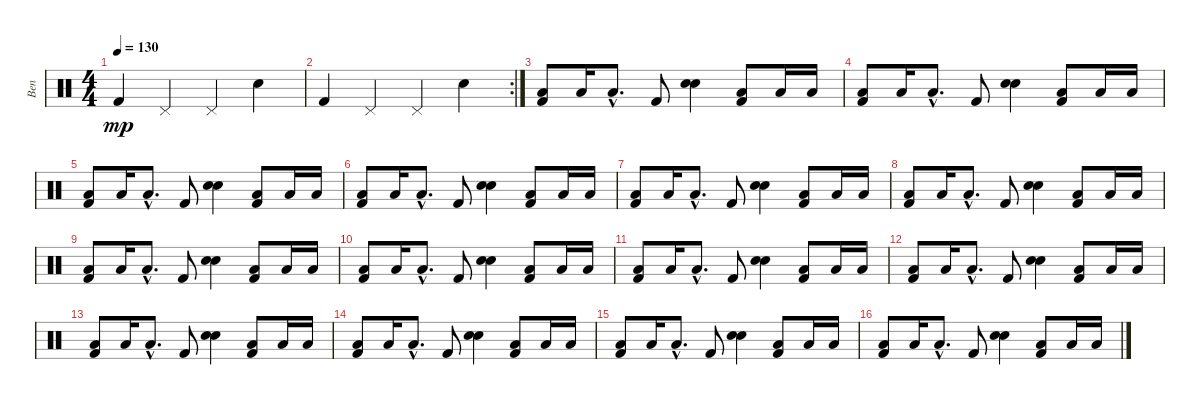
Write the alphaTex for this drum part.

\track ("Ben" "Ben") {instrument percussion}
\staff {score}
\articulation defaults
\ts (4 4)
\tempo 130
\clef neutral
\ks c "Kick (hit) 2".4{dy mp} "Pedal Hi-Hat (hit)".4 "Pedal Hi-Hat (hit)".4 "Electric Snare (hit)".4
|
\rc 2 "Kick (hit) 2".4 "Pedal Hi-Hat (hit)".4 "Pedal Hi-Hat (hit)".4 "Electric Snare (hit)".4
|
("Low Tom (hit)" "Kick (hit) 2").8 "Low Tom (hit)".16 "Low Tom (hit)"{hac}.8{d} "Kick (hit) 2".8 ("Snare (hit) 2" "Electric Snare (hit)").4 ("Low Tom (hit)" "Kick (hit) 2").8 "Low Tom (hit)".16 "Low Tom (hit)".16 |
("Low Tom (hit)" "Kick (hit) 2").8 "Low Tom (hit)".16 "Low Tom (hit)"{hac}.8{d} "Kick (hit) 2".8 ("Snare (hit) 2" "Electric Snare (hit)").4 ("Low Tom (hit)" "Kick (hit) 2").8 "Low Tom (hit)".16 "Low Tom (hit)".16 |
("Low Tom (hit)" "Kick (hit) 2").8 "Low Tom (hit)".16 "Low Tom (hit)"{hac}.8{d} "Kick (hit) 2".8 ("Snare (hit) 2" "Electric Snare (hit)").4 ("Low Tom (hit)" "Kick (hit) 2").8 "Low Tom (hit)".16 "Low Tom (hit)".16 |
("Low Tom (hit)" "Kick (hit) 2").8 "Low Tom (hit)".16 "Low Tom (hit)"{hac}.8{d} "Kick (hit) 2".8 ("Snare (hit) 2" "Electric Snare (hit)").4 ("Low Tom (hit)" "Kick (hit) 2").8 "Low Tom (hit)".16 "Low Tom (hit)".16 |
("Low Tom (hit)" "Kick (hit) 2").8 "Low Tom (hit)".16 "Low Tom (hit)"{hac}.8{d} "Kick (hit) 2".8 ("Snare (hit) 2" "Electric Snare (hit)").4 ("Low Tom (hit)" "Kick (hit) 2").8 "Low Tom (hit)".16 "Low Tom (hit)".16 |
("Low Tom (hit)" "Kick (hit) 2").8 "Low Tom (hit)".16 "Low Tom (hit)"{hac}.8{d} "Kick (hit) 2".8 ("Snare (hit) 2" "Electric Snare (hit)").4 ("Low Tom (hit)" "Kick (hit) 2").8 "Low Tom (hit)".16 "Low Tom (hit)".16 |
("Low Tom (hit)" "Kick (hit) 2").8 "Low Tom (hit)".16 "Low Tom (hit)"{hac}.8{d} "Kick (hit) 2".8 ("Snare (hit) 2" "Electric Snare (hit)").4 ("Low Tom (hit)" "Kick (hit) 2").8 "Low Tom (hit)".16 "Low Tom (hit)".16 |
("Low Tom (hit)" "Kick (hit) 2").8 "Low Tom (hit)".16 "Low Tom (hit)"{hac}.8{d} "Kick (hit) 2".8 ("Snare (hit) 2" "Electric Snare (hit)").4 ("Low Tom (hit)" "Kick (hit) 2").8 "Low Tom (hit)".16 "Low Tom (hit)".16 |
("Low Tom (hit)" "Kick (hit) 2").8 "Low Tom (hit)".16 "Low Tom (hit)"{hac}.8{d} "Kick (hit) 2".8 ("Snare (hit) 2" "Electric Snare (hit)").4 ("Low Tom (hit)" "Kick (hit) 2").8 "Low Tom (hit)".16 "Low Tom (hit)".16 |
("Low Tom (hit)" "Kick (hit) 2").8 "Low Tom (hit)".16 "Low Tom (hit)"{hac}.8{d} "Kick (hit) 2".8 ("Snare (hit) 2" "Electric Snare (hit)").4 ("Low Tom (hit)" "Kick (hit) 2").8 "Low Tom (hit)".16 "Low Tom (hit)".16 |
("Low Tom (hit)" "Kick (hit) 2").8 "Low Tom (hit)".16 "Low Tom (hit)"{hac}.8{d} "Kick (hit) 2".8 ("Snare (hit) 2" "Electric Snare (hit)").4 ("Low Tom (hit)" "Kick (hit) 2").8 "Low Tom (hit)".16 "Low Tom (hit)".16 |
("Low Tom (hit)" "Kick (hit) 2").8 "Low Tom (hit)".16 "Low Tom (hit)"{hac}.8{d} "Kick (hit) 2".8 ("Snare (hit) 2" "Electric Snare (hit)").4 ("Low Tom (hit)" "Kick (hit) 2").8 "Low Tom (hit)".16 "Low Tom (hit)".16 |
("Low Tom (hit)" "Kick (hit) 2").8 "Low Tom (hit)".16 "Low Tom (hit)"{hac}.8{d} "Kick (hit) 2".8 ("Snare (hit) 2" "Electric Snare (hit)").4 ("Low Tom (hit)" "Kick (hit) 2").8 "Low Tom (hit)".16 "Low Tom (hit)".16 |
("Low Tom (hit)" "Kick (hit) 2").8 "Low Tom (hit)".16 "Low Tom (hit)"{hac}.8{d} "Kick (hit) 2".8 ("Snare (hit) 2" "Electric Snare (hit)").4 ("Low Tom (hit)" "Kick (hit) 2").8 "Low Tom (hit)".16 "Low Tom (hit)".16
